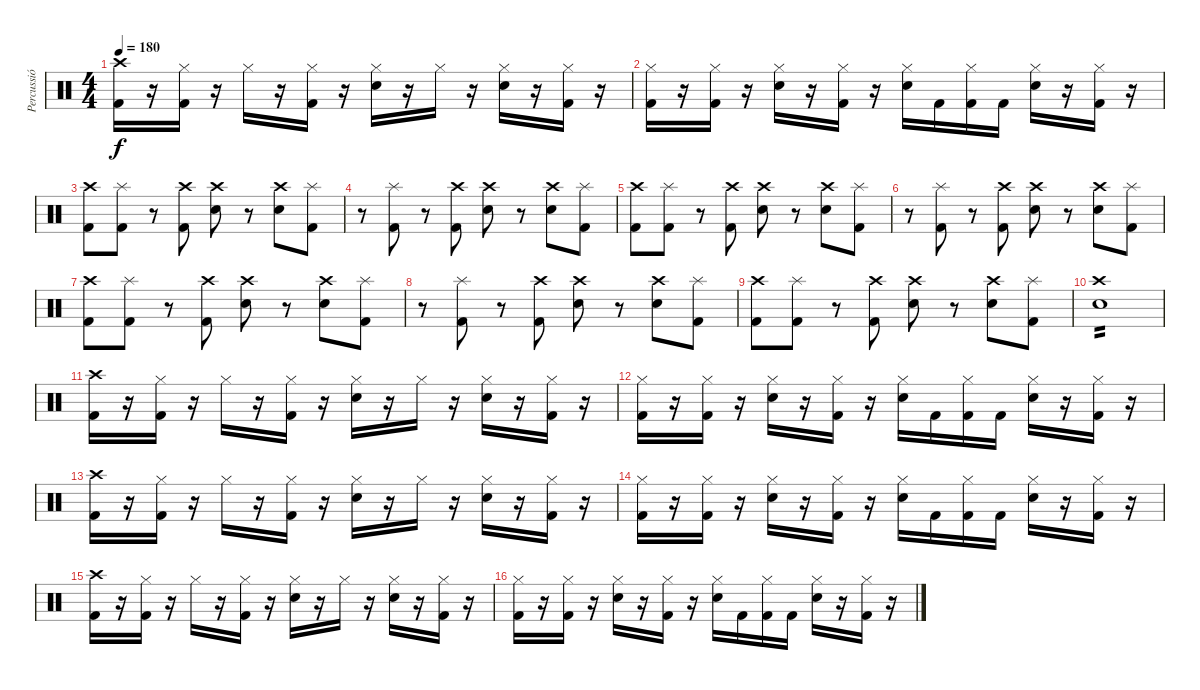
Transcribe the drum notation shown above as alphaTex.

\track ("Percussió" "Percussió") {instrument percussion}
\staff {score}
\articulation defaults
\ts (4 4)
\tempo 180
\clef neutral
\ks c
("Crash high (hit)" "Kick (hit) 2").16{dy f} r.16 ("Hi-Hat (closed)" "Kick (hit) 2").16 r.16 "Hi-Hat (closed)".16 r.16 ("Hi-Hat (closed)" "Kick (hit) 2").16 r.16 ("Hi-Hat (closed)" "Electric Snare (hit)").16 r.16 "Hi-Hat (closed)".16 r.16 ("Hi-Hat (closed)" "Electric Snare (hit)").16 r.16 ("Hi-Hat (closed)" "Kick (hit) 2").16 r.16 |
("Hi-Hat (closed)" "Kick (hit) 2").16 r.16 ("Hi-Hat (closed)" "Kick (hit) 2").16 r.16 ("Hi-Hat (closed)" "Electric Snare (hit)").16 r.16 ("Hi-Hat (closed)" "Kick (hit) 2").16 r.16 ("Hi-Hat (closed)" "Electric Snare (hit)").16 "Kick (hit) 2".16 ("Hi-Hat (closed)" "Kick (hit) 2").16 "Kick (hit) 2".16 ("Hi-Hat (closed)" "Electric Snare (hit)").16 r.16 ("Hi-Hat (closed)" "Kick (hit) 2").16 r.16 |
("Crash high (hit)" "Kick (hit) 2").8 ("Splash (hit)" "Kick (hit) 2").8 r.8 ("Crash high (hit)" "Kick (hit) 2").8 ("Crash high (hit)" "Electric Snare (hit)").8 r.8 ("Crash high (hit)" "Electric Snare (hit)").8 ("Splash (hit)" "Kick (hit) 2").8 |
r.8 ("Splash (hit)" "Kick (hit) 2").8 r.8 ("Crash high (hit)" "Kick (hit) 2").8 ("Crash high (hit)" "Electric Snare (hit)").8 r.8 ("Crash high (hit)" "Electric Snare (hit)").8 ("Splash (hit)" "Kick (hit) 2").8 |
("Crash high (hit)" "Kick (hit) 2").8 ("Splash (hit)" "Kick (hit) 2").8 r.8 ("Crash high (hit)" "Kick (hit) 2").8 ("Crash high (hit)" "Electric Snare (hit)").8 r.8 ("Crash high (hit)" "Electric Snare (hit)").8 ("Splash (hit)" "Kick (hit) 2").8 |
r.8 ("Splash (hit)" "Kick (hit) 2").8 r.8 ("Crash high (hit)" "Kick (hit) 2").8 ("Crash high (hit)" "Electric Snare (hit)").8 r.8 ("Crash high (hit)" "Electric Snare (hit)").8 ("Splash (hit)" "Kick (hit) 2").8 |
("Crash high (hit)" "Kick (hit) 2").8 ("Splash (hit)" "Kick (hit) 2").8 r.8 ("Crash high (hit)" "Kick (hit) 2").8 ("Crash high (hit)" "Electric Snare (hit)").8 r.8 ("Crash high (hit)" "Electric Snare (hit)").8 ("Splash (hit)" "Kick (hit) 2").8 |
r.8 ("Splash (hit)" "Kick (hit) 2").8 r.8 ("Crash high (hit)" "Kick (hit) 2").8 ("Crash high (hit)" "Electric Snare (hit)").8 r.8 ("Crash high (hit)" "Electric Snare (hit)").8 ("Splash (hit)" "Kick (hit) 2").8 |
("Crash high (hit)" "Kick (hit) 2").8 ("Splash (hit)" "Kick (hit) 2").8 r.8 ("Crash high (hit)" "Kick (hit) 2").8 ("Crash high (hit)" "Electric Snare (hit)").8 r.8 ("Crash high (hit)" "Electric Snare (hit)").8 ("Splash (hit)" "Kick (hit) 2").8 |
("Crash high (hit)" "Electric Snare (hit)").1{tp 2} |
("Crash high (hit)" "Kick (hit) 2").16 r.16 ("Hi-Hat (closed)" "Kick (hit) 2").16 r.16 "Hi-Hat (closed)".16 r.16 ("Hi-Hat (closed)" "Kick (hit) 2").16 r.16 ("Hi-Hat (closed)" "Electric Snare (hit)").16 r.16 "Hi-Hat (closed)".16 r.16 ("Hi-Hat (closed)" "Electric Snare (hit)").16 r.16 ("Hi-Hat (closed)" "Kick (hit) 2").16 r.16 |
("Hi-Hat (closed)" "Kick (hit) 2").16 r.16 ("Hi-Hat (closed)" "Kick (hit) 2").16 r.16 ("Hi-Hat (closed)" "Electric Snare (hit)").16 r.16 ("Hi-Hat (closed)" "Kick (hit) 2").16 r.16 ("Hi-Hat (closed)" "Electric Snare (hit)").16 "Kick (hit) 2".16 ("Hi-Hat (closed)" "Kick (hit) 2").16 "Kick (hit) 2".16 ("Hi-Hat (closed)" "Electric Snare (hit)").16 r.16 ("Hi-Hat (closed)" "Kick (hit) 2").16 r.16 |
("Crash high (hit)" "Kick (hit) 2").16 r.16 ("Hi-Hat (closed)" "Kick (hit) 2").16 r.16 "Hi-Hat (closed)".16 r.16 ("Hi-Hat (closed)" "Kick (hit) 2").16 r.16 ("Hi-Hat (closed)" "Electric Snare (hit)").16 r.16 "Hi-Hat (closed)".16 r.16 ("Hi-Hat (closed)" "Electric Snare (hit)").16 r.16 ("Hi-Hat (closed)" "Kick (hit) 2").16 r.16 |
("Hi-Hat (closed)" "Kick (hit) 2").16 r.16 ("Hi-Hat (closed)" "Kick (hit) 2").16 r.16 ("Hi-Hat (closed)" "Electric Snare (hit)").16 r.16 ("Hi-Hat (closed)" "Kick (hit) 2").16 r.16 ("Hi-Hat (closed)" "Electric Snare (hit)").16 "Kick (hit) 2".16 ("Hi-Hat (closed)" "Kick (hit) 2").16 "Kick (hit) 2".16 ("Hi-Hat (closed)" "Electric Snare (hit)").16 r.16 ("Hi-Hat (closed)" "Kick (hit) 2").16 r.16 |
("Crash high (hit)" "Kick (hit) 2").16 r.16 ("Hi-Hat (closed)" "Kick (hit) 2").16 r.16 "Hi-Hat (closed)".16 r.16 ("Hi-Hat (closed)" "Kick (hit) 2").16 r.16 ("Hi-Hat (closed)" "Electric Snare (hit)").16 r.16 "Hi-Hat (closed)".16 r.16 ("Hi-Hat (closed)" "Electric Snare (hit)").16 r.16 ("Hi-Hat (closed)" "Kick (hit) 2").16 r.16 |
("Hi-Hat (closed)" "Kick (hit) 2").16 r.16 ("Hi-Hat (closed)" "Kick (hit) 2").16 r.16 ("Hi-Hat (closed)" "Electric Snare (hit)").16 r.16 ("Hi-Hat (closed)" "Kick (hit) 2").16 r.16 ("Hi-Hat (closed)" "Electric Snare (hit)").16 "Kick (hit) 2".16 ("Hi-Hat (closed)" "Kick (hit) 2").16 "Kick (hit) 2".16 ("Hi-Hat (closed)" "Electric Snare (hit)").16 r.16 ("Hi-Hat (closed)" "Kick (hit) 2").16 r.16
